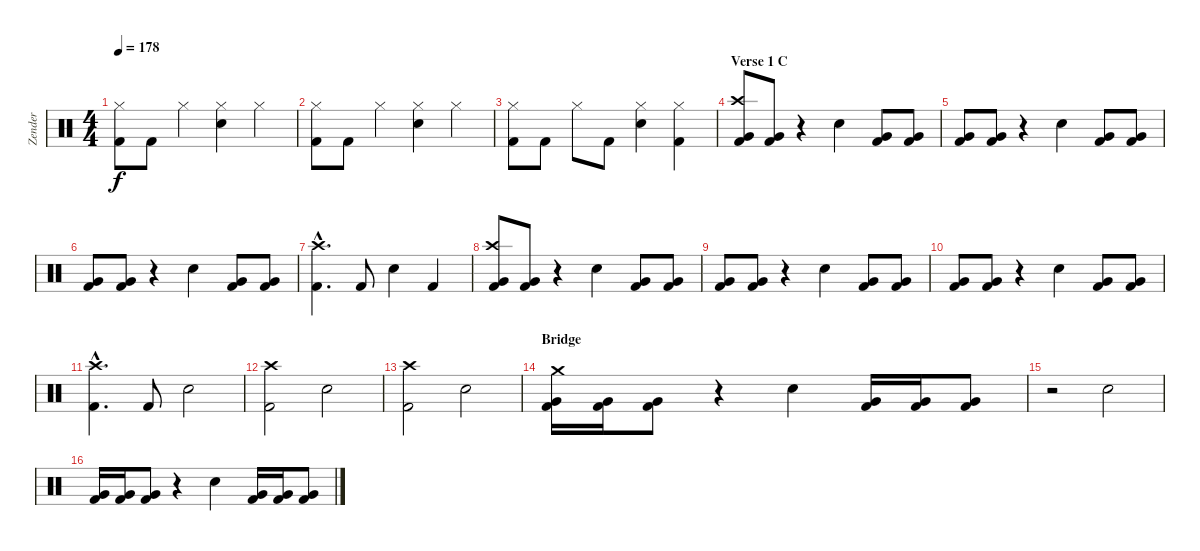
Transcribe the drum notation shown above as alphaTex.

\track ("Zender" "Zender") {instrument percussion}
\staff {score}
\articulation defaults
\ts (4 4)
\tempo 178
\clef neutral
\ks c
("Hi-Hat (closed)" "Kick (hit) 2").8{dy f} "Kick (hit) 2".8 "Hi-Hat (closed)".4 ("Hi-Hat (closed)" "Electric Snare (hit)").4 "Hi-Hat (closed)".4 |
("Hi-Hat (closed)" "Kick (hit) 2").8 "Kick (hit) 2".8 "Hi-Hat (closed)".4 ("Hi-Hat (closed)" "Electric Snare (hit)").4 "Hi-Hat (closed)".4 |
("Hi-Hat (closed)" "Kick (hit) 2").8 "Kick (hit) 2".8 "Hi-Hat (closed)".8 "Kick (hit) 2".8 ("Hi-Hat (closed)" "Electric Snare (hit)").4 ("Hi-Hat (closed)" "Kick (hit) 2").4 |
\section ("" "Verse 1 C")
("Crash high (hit)" "Very Low Tom (hit)" "Kick (hit) 2").8 ("Very Low Tom (hit)" "Kick (hit) 2").8 r.4 "Electric Snare (hit)".4 ("Very Low Tom (hit)" "Kick (hit) 2").8 ("Very Low Tom (hit)" "Kick (hit) 2").8 |
("Very Low Tom (hit)" "Kick (hit) 2").8 ("Very Low Tom (hit)" "Kick (hit) 2").8 r.4 "Electric Snare (hit)".4 ("Very Low Tom (hit)" "Kick (hit) 2").8 ("Very Low Tom (hit)" "Kick (hit) 2").8 |
("Very Low Tom (hit)" "Kick (hit) 2").8 ("Very Low Tom (hit)" "Kick (hit) 2").8 r.4 "Electric Snare (hit)".4 ("Very Low Tom (hit)" "Kick (hit) 2").8 ("Very Low Tom (hit)" "Kick (hit) 2").8 |
("Crash high (hit)"{hac} "Kick (hit) 2"{hac}).4{d} "Kick (hit) 2".8 "Electric Snare (hit)".4 "Kick (hit) 2".4 |
("Crash high (hit)" "Very Low Tom (hit)" "Kick (hit) 2").8 ("Very Low Tom (hit)" "Kick (hit) 2").8 r.4 "Electric Snare (hit)".4 ("Very Low Tom (hit)" "Kick (hit) 2").8 ("Very Low Tom (hit)" "Kick (hit) 2").8 |
("Very Low Tom (hit)" "Kick (hit) 2").8 ("Very Low Tom (hit)" "Kick (hit) 2").8 r.4 "Electric Snare (hit)".4 ("Very Low Tom (hit)" "Kick (hit) 2").8 ("Very Low Tom (hit)" "Kick (hit) 2").8 |
("Very Low Tom (hit)" "Kick (hit) 2").8 ("Very Low Tom (hit)" "Kick (hit) 2").8 r.4 "Electric Snare (hit)".4 ("Very Low Tom (hit)" "Kick (hit) 2").8 ("Very Low Tom (hit)" "Kick (hit) 2").8 |
("Crash high (hit)"{hac} "Kick (hit) 2"{hac}).4{d} "Kick (hit) 2".8 "Electric Snare (hit)".2 |
("Crash high (hit)" "Kick (hit) 2").2 "Electric Snare (hit)".2 |
("Crash high (hit)" "Kick (hit) 2").2 "Electric Snare (hit)".2 |
\section ("" "Bridge")
("Crash medium (hit)" "Very Low Tom (hit)" "Kick (hit) 2").16 ("Very Low Tom (hit)" "Kick (hit) 2").16 ("Very Low Tom (hit)" "Kick (hit) 2").8 r.4 "Electric Snare (hit)".4 ("Very Low Tom (hit)" "Kick (hit) 2").16 ("Very Low Tom (hit)" "Kick (hit) 2").16 ("Very Low Tom (hit)" "Kick (hit) 2").8 |
r.2 "Electric Snare (hit)".2 |
("Very Low Tom (hit)" "Kick (hit) 2").16 ("Very Low Tom (hit)" "Kick (hit) 2").16 ("Very Low Tom (hit)" "Kick (hit) 2").8 r.4 "Electric Snare (hit)".4 ("Very Low Tom (hit)" "Kick (hit) 2").16 ("Very Low Tom (hit)" "Kick (hit) 2").16 ("Very Low Tom (hit)" "Kick (hit) 2").8
